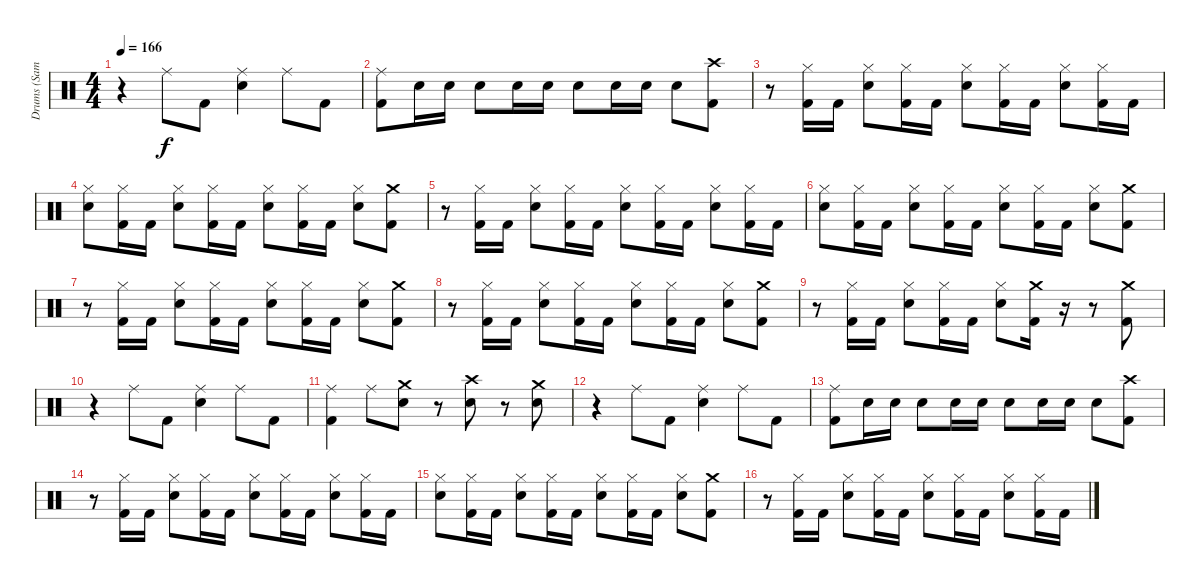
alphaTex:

\track ("Drums (Samuelson)" "Drums (Sam") {instrument percussion}
\staff
\articulation defaults
\ts (4 4)
\tempo 166
\clef neutral
\ks c
r.4{dy f} "Ride (middle)".8 "Kick (hit) 2".8 ("Ride (middle)" "Electric Snare (hit)").4 "Ride (middle)".8 "Kick (hit) 2".8 |
("Ride (middle)" "Kick (hit) 2").8 "Electric Snare (hit)".16 "Electric Snare (hit)".16 "Electric Snare (hit)".8 "Electric Snare (hit)".16 "Electric Snare (hit)".16 "Electric Snare (hit)".8 "Electric Snare (hit)".16 "Electric Snare (hit)".16 "Electric Snare (hit)".8 ("Crash high (hit)" "Kick (hit) 2").8 |
r.8 ("Hi-Hat (closed)" "Kick (hit) 2").16 "Kick (hit) 2".16 ("Hi-Hat (closed)" "Electric Snare (hit)").8 ("Hi-Hat (closed)" "Kick (hit) 2").16 "Kick (hit) 2".16 ("Hi-Hat (closed)" "Electric Snare (hit)").8 ("Hi-Hat (closed)" "Kick (hit) 2").16 "Kick (hit) 2".16 ("Hi-Hat (closed)" "Electric Snare (hit)").8 ("Hi-Hat (closed)" "Kick (hit) 2").16 "Kick (hit) 2".16 |
("Hi-Hat (closed)" "Electric Snare (hit)").8 ("Hi-Hat (closed)" "Kick (hit) 2").16 "Kick (hit) 2".16 ("Hi-Hat (closed)" "Electric Snare (hit)").8 ("Hi-Hat (closed)" "Kick (hit) 2").16 "Kick (hit) 2".16 ("Hi-Hat (closed)" "Electric Snare (hit)").8 ("Hi-Hat (closed)" "Kick (hit) 2").16 "Kick (hit) 2".16 ("Hi-Hat (closed)" "Electric Snare (hit)").8 ("Crash medium (hit)" "Kick (hit) 2").8 |
r.8 ("Hi-Hat (closed)" "Kick (hit) 2").16 "Kick (hit) 2".16 ("Hi-Hat (closed)" "Electric Snare (hit)").8 ("Hi-Hat (closed)" "Kick (hit) 2").16 "Kick (hit) 2".16 ("Hi-Hat (closed)" "Electric Snare (hit)").8 ("Hi-Hat (closed)" "Kick (hit) 2").16 "Kick (hit) 2".16 ("Hi-Hat (closed)" "Electric Snare (hit)").8 ("Hi-Hat (closed)" "Kick (hit) 2").16 "Kick (hit) 2".16 |
("Hi-Hat (closed)" "Electric Snare (hit)").8 ("Hi-Hat (closed)" "Kick (hit) 2").16 "Kick (hit) 2".16 ("Hi-Hat (closed)" "Electric Snare (hit)").8 ("Hi-Hat (closed)" "Kick (hit) 2").16 "Kick (hit) 2".16 ("Hi-Hat (closed)" "Electric Snare (hit)").8 ("Hi-Hat (closed)" "Kick (hit) 2").16 "Kick (hit) 2".16 ("Hi-Hat (closed)" "Electric Snare (hit)").8 ("Crash medium (hit)" "Kick (hit) 2").8 |
r.8 ("Hi-Hat (closed)" "Kick (hit) 2").16 "Kick (hit) 2".16 ("Hi-Hat (closed)" "Electric Snare (hit)").8 ("Hi-Hat (closed)" "Kick (hit) 2").16 "Kick (hit) 2".16 ("Hi-Hat (closed)" "Electric Snare (hit)").8 ("Hi-Hat (closed)" "Kick (hit) 2").16 "Kick (hit) 2".16 ("Hi-Hat (closed)" "Electric Snare (hit)").8 ("Crash medium (hit)" "Kick (hit) 2").8 |
r.8 ("Hi-Hat (closed)" "Kick (hit) 2").16 "Kick (hit) 2".16 ("Hi-Hat (closed)" "Electric Snare (hit)").8 ("Hi-Hat (closed)" "Kick (hit) 2").16 "Kick (hit) 2".16 ("Hi-Hat (closed)" "Electric Snare (hit)").8 ("Hi-Hat (closed)" "Kick (hit) 2").16 "Kick (hit) 2".16 ("Hi-Hat (closed)" "Electric Snare (hit)").8 ("Crash medium (hit)" "Kick (hit) 2").8 |
r.8 ("Hi-Hat (closed)" "Kick (hit) 2").16 "Kick (hit) 2".16 ("Hi-Hat (closed)" "Electric Snare (hit)").8 ("Hi-Hat (closed)" "Kick (hit) 2").16 "Kick (hit) 2".16 ("Hi-Hat (closed)" "Electric Snare (hit)").8 ("Crash medium (hit)" "Kick (hit) 2").16 r.16 r.8 ("Crash medium (hit)" "Kick (hit) 2").8 |
r.4 "Ride (middle)".8 "Kick (hit) 2".8 ("Ride (middle)" "Electric Snare (hit)").4 "Ride (middle)".8 "Kick (hit) 2".8 |
("Ride (middle)" "Kick (hit) 2").4 "Ride (middle)".8 ("Crash medium (hit)" "Electric Snare (hit)").8 r.8 ("Crash high (hit)" "Electric Snare (hit)").8 r.8 ("Crash medium (hit)" "Electric Snare (hit)").8 |
r.4 "Ride (middle)".8 "Kick (hit) 2".8 ("Ride (middle)" "Electric Snare (hit)").4 "Ride (middle)".8 "Kick (hit) 2".8 |
("Ride (middle)" "Kick (hit) 2").8 "Electric Snare (hit)".16 "Electric Snare (hit)".16 "Electric Snare (hit)".8 "Electric Snare (hit)".16 "Electric Snare (hit)".16 "Electric Snare (hit)".8 "Electric Snare (hit)".16 "Electric Snare (hit)".16 "Electric Snare (hit)".8 ("Crash high (hit)" "Kick (hit) 2").8 |
r.8 ("Hi-Hat (closed)" "Kick (hit) 2").16 "Kick (hit) 2".16 ("Hi-Hat (closed)" "Electric Snare (hit)").8 ("Hi-Hat (closed)" "Kick (hit) 2").16 "Kick (hit) 2".16 ("Hi-Hat (closed)" "Electric Snare (hit)").8 ("Hi-Hat (closed)" "Kick (hit) 2").16 "Kick (hit) 2".16 ("Hi-Hat (closed)" "Electric Snare (hit)").8 ("Hi-Hat (closed)" "Kick (hit) 2").16 "Kick (hit) 2".16 |
("Hi-Hat (closed)" "Electric Snare (hit)").8 ("Hi-Hat (closed)" "Kick (hit) 2").16 "Kick (hit) 2".16 ("Hi-Hat (closed)" "Electric Snare (hit)").8 ("Hi-Hat (closed)" "Kick (hit) 2").16 "Kick (hit) 2".16 ("Hi-Hat (closed)" "Electric Snare (hit)").8 ("Hi-Hat (closed)" "Kick (hit) 2").16 "Kick (hit) 2".16 ("Hi-Hat (closed)" "Electric Snare (hit)").8 ("Crash medium (hit)" "Kick (hit) 2").8 |
r.8 ("Hi-Hat (closed)" "Kick (hit) 2").16 "Kick (hit) 2".16 ("Hi-Hat (closed)" "Electric Snare (hit)").8 ("Hi-Hat (closed)" "Kick (hit) 2").16 "Kick (hit) 2".16 ("Hi-Hat (closed)" "Electric Snare (hit)").8 ("Hi-Hat (closed)" "Kick (hit) 2").16 "Kick (hit) 2".16 ("Hi-Hat (closed)" "Electric Snare (hit)").8 ("Hi-Hat (closed)" "Kick (hit) 2").16 "Kick (hit) 2".16
